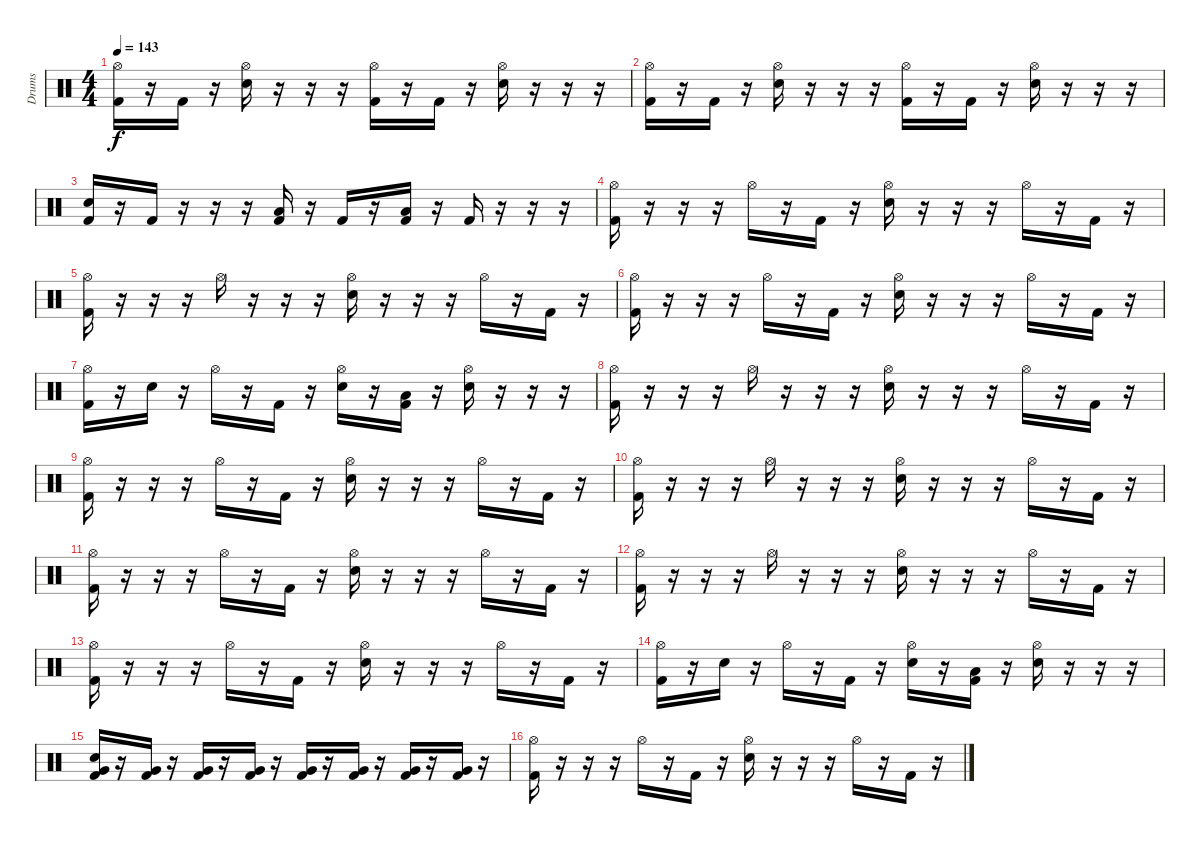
\track ("Drums" "Drums") {instrument percussion}
\staff {score}
\articulation defaults
\ts (4 4)
\tempo 143
\clef neutral
\ks c
("Kick (hit) 2" "Hi-Hat (open)").16{dy f} r.16 "Kick (hit) 2".16 r.16 ("Electric Snare (hit)" "Hi-Hat (open)").16 r.16 r.16 r.16 ("Kick (hit) 2" "Hi-Hat (open)").16 r.16 "Kick (hit) 2".16 r.16 ("Electric Snare (hit)" "Hi-Hat (open)").16 r.16 r.16 r.16 |
("Kick (hit) 2" "Hi-Hat (open)").16 r.16 "Kick (hit) 2".16 r.16 ("Electric Snare (hit)" "Hi-Hat (open)").16 r.16 r.16 r.16 ("Kick (hit) 2" "Hi-Hat (open)").16 r.16 "Kick (hit) 2".16 r.16 ("Electric Snare (hit)" "Hi-Hat (open)").16 r.16 r.16 r.16 |
("Kick (hit) 2" "Electric Snare (hit)").16 r.16 "Kick (hit) 2".16 r.16 r.16 r.16 ("Kick (hit) 2" "Low Tom (hit)").16 r.16 "Kick (hit) 2".16 r.16 ("Kick (hit) 2" "Low Tom (hit)").16 r.16 "Kick (hit) 2".16 r.16 r.16 r.16 |
("Kick (hit) 2" "Hi-Hat (open)").16 r.16 r.16 r.16 "Hi-Hat (open)".16 r.16 "Kick (hit) 2".16 r.16 ("Electric Snare (hit)" "Hi-Hat (open)").16 r.16 r.16 r.16 "Hi-Hat (open)".16 r.16 "Kick (hit) 2".16 r.16 |
("Kick (hit) 2" "Hi-Hat (open)").16 r.16 r.16 r.16 "Hi-Hat (open)".16 r.16 r.16 r.16 ("Electric Snare (hit)" "Hi-Hat (open)").16 r.16 r.16 r.16 "Hi-Hat (open)".16 r.16 "Kick (hit) 2".16 r.16 |
("Kick (hit) 2" "Hi-Hat (open)").16 r.16 r.16 r.16 "Hi-Hat (open)".16 r.16 "Kick (hit) 2".16 r.16 ("Electric Snare (hit)" "Hi-Hat (open)").16 r.16 r.16 r.16 "Hi-Hat (open)".16 r.16 "Kick (hit) 2".16 r.16 |
("Kick (hit) 2" "Hi-Hat (open)").16 r.16 "Electric Snare (hit)".16 r.16 "Hi-Hat (open)".16 r.16 "Kick (hit) 2".16 r.16 ("Electric Snare (hit)" "Hi-Hat (open)").16 r.16 ("Kick (hit) 2" "Low Tom (hit)").16 r.16 ("Electric Snare (hit)" "Hi-Hat (open)").16 r.16 r.16 r.16 |
("Kick (hit) 2" "Hi-Hat (open)").16 r.16 r.16 r.16 "Hi-Hat (open)".16 r.16 r.16 r.16 ("Electric Snare (hit)" "Hi-Hat (open)").16 r.16 r.16 r.16 "Hi-Hat (open)".16 r.16 "Kick (hit) 2".16 r.16 |
("Kick (hit) 2" "Hi-Hat (open)").16 r.16 r.16 r.16 "Hi-Hat (open)".16 r.16 "Kick (hit) 2".16 r.16 ("Electric Snare (hit)" "Hi-Hat (open)").16 r.16 r.16 r.16 "Hi-Hat (open)".16 r.16 "Kick (hit) 2".16 r.16 |
("Kick (hit) 2" "Hi-Hat (open)").16 r.16 r.16 r.16 "Hi-Hat (open)".16 r.16 r.16 r.16 ("Electric Snare (hit)" "Hi-Hat (open)").16 r.16 r.16 r.16 "Hi-Hat (open)".16 r.16 "Kick (hit) 2".16 r.16 |
("Kick (hit) 2" "Hi-Hat (open)").16 r.16 r.16 r.16 "Hi-Hat (open)".16 r.16 "Kick (hit) 2".16 r.16 ("Electric Snare (hit)" "Hi-Hat (open)").16 r.16 r.16 r.16 "Hi-Hat (open)".16 r.16 "Kick (hit) 2".16 r.16 |
("Kick (hit) 2" "Hi-Hat (open)").16 r.16 r.16 r.16 "Hi-Hat (open)".16 r.16 r.16 r.16 ("Electric Snare (hit)" "Hi-Hat (open)").16 r.16 r.16 r.16 "Hi-Hat (open)".16 r.16 "Kick (hit) 2".16 r.16 |
("Kick (hit) 2" "Hi-Hat (open)").16 r.16 r.16 r.16 "Hi-Hat (open)".16 r.16 "Kick (hit) 2".16 r.16 ("Electric Snare (hit)" "Hi-Hat (open)").16 r.16 r.16 r.16 "Hi-Hat (open)".16 r.16 "Kick (hit) 2".16 r.16 |
("Kick (hit) 2" "Hi-Hat (open)").16 r.16 "Electric Snare (hit)".16 r.16 "Hi-Hat (open)".16 r.16 "Kick (hit) 2".16 r.16 ("Electric Snare (hit)" "Hi-Hat (open)").16 r.16 ("Kick (hit) 2" "Low Tom (hit)").16 r.16 ("Electric Snare (hit)" "Hi-Hat (open)").16 r.16 r.16 r.16 |
("Kick (hit) 2" "Very Low Tom (hit)" "Electric Snare (hit)").16 r.16 ("Kick (hit) 2" "Very Low Tom (hit)").16 r.16 ("Kick (hit) 2" "Very Low Tom (hit)").16 r.16 ("Kick (hit) 2" "Very Low Tom (hit)").16 r.16 ("Kick (hit) 2" "Very Low Tom (hit)").16 r.16 ("Kick (hit) 2" "Very Low Tom (hit)").16 r.16 ("Kick (hit) 2" "Very Low Tom (hit)").16 r.16 ("Kick (hit) 2" "Very Low Tom (hit)").16 r.16 |
("Kick (hit) 2" "Hi-Hat (open)").16 r.16 r.16 r.16 "Hi-Hat (open)".16 r.16 "Kick (hit) 2".16 r.16 ("Electric Snare (hit)" "Hi-Hat (open)").16 r.16 r.16 r.16 "Hi-Hat (open)".16 r.16 "Kick (hit) 2".16 r.16
